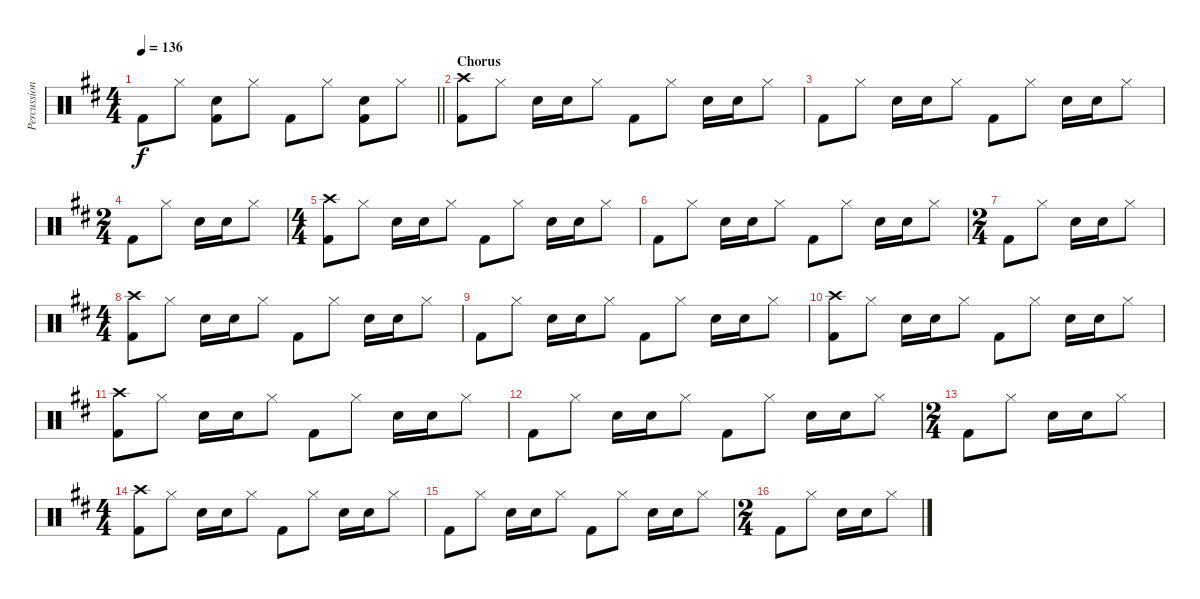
\track ("Percussion" "Percussion") {instrument percussion}
\staff {score}
\articulation defaults
\ts (4 4)
\tempo 136
\clef neutral
\barLineRight lightlight
\ks d "Kick (hit) 2".8{dy f} "Hi-Hat (closed)".8
("Electric Snare (hit)" "Kick (hit) 2").8 "Hi-Hat (closed)".8 "Kick (hit) 2".8 "Hi-Hat (closed)".8 ("Electric Snare (hit)" "Kick (hit) 2").8 "Hi-Hat (closed)".8 |
\section ("" "Chorus")
("Crash high (hit)" "Kick (hit) 2").8 "Hi-Hat (closed)".8 "Electric Snare (hit)".16 "Electric Snare (hit)".16 "Hi-Hat (closed)".8 "Kick (hit) 2".8 "Hi-Hat (closed)".8 "Electric Snare (hit)".16 "Electric Snare (hit)".16 "Hi-Hat (closed)".8 |
"Kick (hit) 2".8 "Hi-Hat (closed)".8 "Electric Snare (hit)".16 "Electric Snare (hit)".16 "Hi-Hat (closed)".8 "Kick (hit) 2".8 "Hi-Hat (closed)".8 "Electric Snare (hit)".16 "Electric Snare (hit)".16 "Hi-Hat (closed)".8 |
\ts (2 4)
"Kick (hit) 2".8 "Hi-Hat (closed)".8 "Electric Snare (hit)".16 "Electric Snare (hit)".16 "Hi-Hat (closed)".8 |
\ts (4 4)
("Crash high (hit)" "Kick (hit) 2").8 "Hi-Hat (closed)".8 "Electric Snare (hit)".16 "Electric Snare (hit)".16 "Hi-Hat (closed)".8 "Kick (hit) 2".8 "Hi-Hat (closed)".8 "Electric Snare (hit)".16 "Electric Snare (hit)".16 "Hi-Hat (closed)".8 |
"Kick (hit) 2".8 "Hi-Hat (closed)".8 "Electric Snare (hit)".16 "Electric Snare (hit)".16 "Hi-Hat (closed)".8 "Kick (hit) 2".8 "Hi-Hat (closed)".8 "Electric Snare (hit)".16 "Electric Snare (hit)".16 "Hi-Hat (closed)".8 |
\ts (2 4)
"Kick (hit) 2".8 "Hi-Hat (closed)".8 "Electric Snare (hit)".16 "Electric Snare (hit)".16 "Hi-Hat (closed)".8 |
\ts (4 4)
("Crash high (hit)" "Kick (hit) 2").8 "Hi-Hat (closed)".8 "Electric Snare (hit)".16 "Electric Snare (hit)".16 "Hi-Hat (closed)".8 "Kick (hit) 2".8 "Hi-Hat (closed)".8 "Electric Snare (hit)".16 "Electric Snare (hit)".16 "Hi-Hat (closed)".8 |
"Kick (hit) 2".8 "Hi-Hat (closed)".8 "Electric Snare (hit)".16 "Electric Snare (hit)".16 "Hi-Hat (closed)".8 "Kick (hit) 2".8 "Hi-Hat (closed)".8 "Electric Snare (hit)".16 "Electric Snare (hit)".16 "Hi-Hat (closed)".8 |
("Crash high (hit)" "Kick (hit) 2").8 "Hi-Hat (closed)".8 "Electric Snare (hit)".16 "Electric Snare (hit)".16 "Hi-Hat (closed)".8 "Kick (hit) 2".8 "Hi-Hat (closed)".8 "Electric Snare (hit)".16 "Electric Snare (hit)".16 "Hi-Hat (closed)".8 |
("Crash high (hit)" "Kick (hit) 2").8 "Hi-Hat (closed)".8 "Electric Snare (hit)".16 "Electric Snare (hit)".16 "Hi-Hat (closed)".8 "Kick (hit) 2".8 "Hi-Hat (closed)".8 "Electric Snare (hit)".16 "Electric Snare (hit)".16 "Hi-Hat (closed)".8 |
"Kick (hit) 2".8 "Hi-Hat (closed)".8 "Electric Snare (hit)".16 "Electric Snare (hit)".16 "Hi-Hat (closed)".8 "Kick (hit) 2".8 "Hi-Hat (closed)".8 "Electric Snare (hit)".16 "Electric Snare (hit)".16 "Hi-Hat (closed)".8 |
\ts (2 4)
"Kick (hit) 2".8 "Hi-Hat (closed)".8 "Electric Snare (hit)".16 "Electric Snare (hit)".16 "Hi-Hat (closed)".8 |
\ts (4 4)
("Crash high (hit)" "Kick (hit) 2").8 "Hi-Hat (closed)".8 "Electric Snare (hit)".16 "Electric Snare (hit)".16 "Hi-Hat (closed)".8 "Kick (hit) 2".8 "Hi-Hat (closed)".8 "Electric Snare (hit)".16 "Electric Snare (hit)".16 "Hi-Hat (closed)".8 |
"Kick (hit) 2".8 "Hi-Hat (closed)".8 "Electric Snare (hit)".16 "Electric Snare (hit)".16 "Hi-Hat (closed)".8 "Kick (hit) 2".8 "Hi-Hat (closed)".8 "Electric Snare (hit)".16 "Electric Snare (hit)".16 "Hi-Hat (closed)".8 |
\ts (2 4)
"Kick (hit) 2".8 "Hi-Hat (closed)".8 "Electric Snare (hit)".16 "Electric Snare (hit)".16 "Hi-Hat (closed)".8
